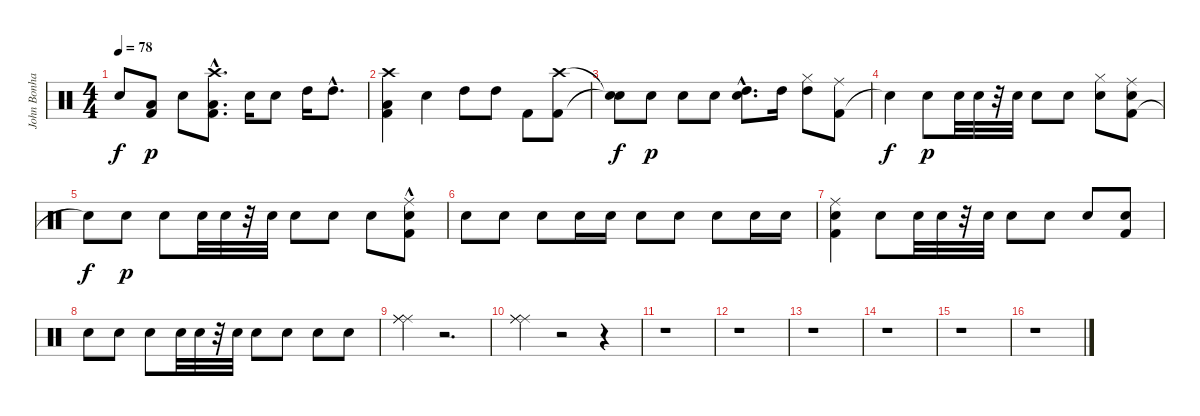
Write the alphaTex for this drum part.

\track ("John Bonham (Drums)" "John Bonha") {instrument percussion}
\staff {score}
\articulation defaults
\ts (4 4)
\tempo 78
\clef neutral
\ks c "Snare (hit)"{t}.8{dy f}
("Kick (hit) 2" "Low Tom (hit)").8{dy p} "Snare (hit) 2".8 ("Kick (hit) 2" "Low Tom (hit)" "Crash high (hit)"{hac}).8{d} "Snare (hit) 2".16 "Snare (hit) 2".8 "High Tom (hit)".16 "High Tom (hit)"{hac}.8{d} |
("Kick (hit) 2" "Low Tom (hit)" "Crash high (hit)").4 "Snare (hit) 2".4 "High Tom (hit)".8 "High Tom (hit)".8 "Kick (hit) 2".8 ("Kick (hit) 2" "Crash high (hit)").8 |
("Snare (hit)"{t} "Snare (hit)"{t}).8{dy f} "Snare (hit) 2".8{dy p} "Snare (hit) 2".8 "Snare (hit) 2".8 ("Snare (hit) 2"{hac} "High Tom (hit)"{hac}).8{d} "High Tom (hit)".16 ("Hi-Hat (closed)" "High Tom (hit)").8 ("Kick (hit) 2" "Ride (middle)").8 |
"Snare (hit)"{t}.4{dy f} "Snare (hit) 2".8{dy p} "Snare (hit) 2".32 "Snare (hit) 2".32 r.32 "Snare (hit) 2".32 "Snare (hit) 2".8 "Snare (hit) 2".8 ("Snare (hit) 2" "Hi-Hat (closed)").8 ("Kick (hit) 2" "Snare (hit) 2" "Ride (middle)").8 |
"Snare (hit)"{t}.8{dy f} "Snare (hit) 2".8{dy p} "Snare (hit) 2".8 "Snare (hit) 2".32 "Snare (hit) 2".32 r.32 "Snare (hit) 2".32 "Snare (hit) 2".8 "Snare (hit) 2".8 "Snare (hit) 2".8 ("Kick (hit) 2" "Snare (hit) 2" "Ride (middle)"{hac}).8 |
"Snare (hit) 2".8 "Snare (hit) 2".8 "Snare (hit) 2".8 "Snare (hit) 2".16 "Snare (hit) 2".16 "Snare (hit) 2".8 "Snare (hit) 2".8 "Snare (hit) 2".8 "Snare (hit) 2".16 "Snare (hit) 2".16 |
("Kick (hit) 2" "Snare (hit) 2" "Ride (middle)").4 "Snare (hit) 2".8 "Snare (hit) 2".32 "Snare (hit) 2".32 r.32 "Snare (hit) 2".32 "Snare (hit) 2".8 "Snare (hit) 2".8 "Snare (hit) 2".8 ("Kick (hit) 2" "Snare (hit) 2").8 |
"Snare (hit) 2".8 "Snare (hit) 2".8 "Snare (hit) 2".8 "Snare (hit) 2".32 "Snare (hit) 2".32 r.32 "Snare (hit) 2".32 "Snare (hit) 2".8 "Snare (hit) 2".8 "Snare (hit) 2".8 "Snare (hit) 2".8 |
("Ride (middle)" "Ride (middle)" "Ride (middle)").4 r.2{d} |
("Ride (middle)" "Ride (middle)" "Ride (middle)").4 r.2 r.4 |
r.1 |
r.1 |
r.1 |
r.1 |
r.1 |
r.1
